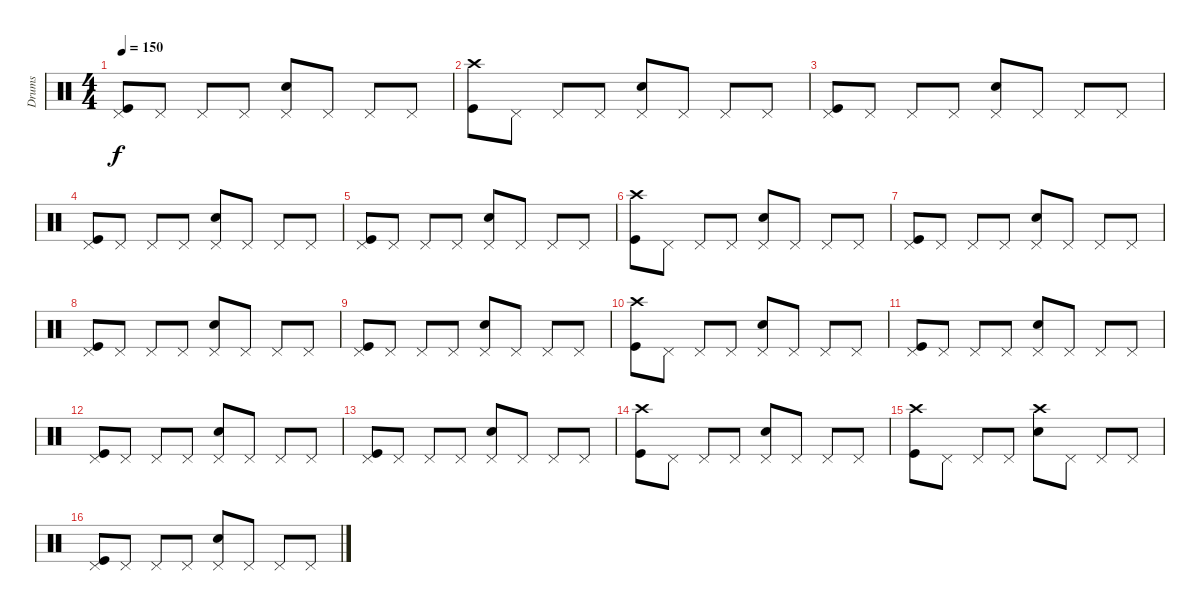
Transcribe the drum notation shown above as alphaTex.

\track ("Drums" "Drums") {instrument percussion}
\staff {score}
\articulation defaults
\ts (4 4)
\tempo 150
\clef neutral
\ks c
("Pedal Hi-Hat (hit)" "Kick (hit)").8{dy f} "Pedal Hi-Hat (hit)".8 "Pedal Hi-Hat (hit)".8 "Pedal Hi-Hat (hit)".8 ("Pedal Hi-Hat (hit)" "Snare (hit) 2").8 "Pedal Hi-Hat (hit)".8 "Pedal Hi-Hat (hit)".8 "Pedal Hi-Hat (hit)".8 |
("Crash high (hit)" "Kick (hit)").8 "Pedal Hi-Hat (hit)".8 "Pedal Hi-Hat (hit)".8 "Pedal Hi-Hat (hit)".8 ("Pedal Hi-Hat (hit)" "Snare (hit) 2").8 "Pedal Hi-Hat (hit)".8 "Pedal Hi-Hat (hit)".8 "Pedal Hi-Hat (hit)".8 |
("Pedal Hi-Hat (hit)" "Kick (hit)").8 "Pedal Hi-Hat (hit)".8 "Pedal Hi-Hat (hit)".8 "Pedal Hi-Hat (hit)".8 ("Pedal Hi-Hat (hit)" "Snare (hit) 2").8 "Pedal Hi-Hat (hit)".8 "Pedal Hi-Hat (hit)".8 "Pedal Hi-Hat (hit)".8 |
("Pedal Hi-Hat (hit)" "Kick (hit)").8 "Pedal Hi-Hat (hit)".8 "Pedal Hi-Hat (hit)".8 "Pedal Hi-Hat (hit)".8 ("Pedal Hi-Hat (hit)" "Snare (hit) 2").8 "Pedal Hi-Hat (hit)".8 "Pedal Hi-Hat (hit)".8 "Pedal Hi-Hat (hit)".8 |
("Pedal Hi-Hat (hit)" "Kick (hit)").8 "Pedal Hi-Hat (hit)".8 "Pedal Hi-Hat (hit)".8 "Pedal Hi-Hat (hit)".8 ("Pedal Hi-Hat (hit)" "Snare (hit) 2").8 "Pedal Hi-Hat (hit)".8 "Pedal Hi-Hat (hit)".8 "Pedal Hi-Hat (hit)".8 |
("Crash high (hit)" "Kick (hit)").8 "Pedal Hi-Hat (hit)".8 "Pedal Hi-Hat (hit)".8 "Pedal Hi-Hat (hit)".8 ("Pedal Hi-Hat (hit)" "Snare (hit) 2").8 "Pedal Hi-Hat (hit)".8 "Pedal Hi-Hat (hit)".8 "Pedal Hi-Hat (hit)".8 |
("Pedal Hi-Hat (hit)" "Kick (hit)").8 "Pedal Hi-Hat (hit)".8 "Pedal Hi-Hat (hit)".8 "Pedal Hi-Hat (hit)".8 ("Pedal Hi-Hat (hit)" "Snare (hit) 2").8 "Pedal Hi-Hat (hit)".8 "Pedal Hi-Hat (hit)".8 "Pedal Hi-Hat (hit)".8 |
("Pedal Hi-Hat (hit)" "Kick (hit)").8 "Pedal Hi-Hat (hit)".8 "Pedal Hi-Hat (hit)".8 "Pedal Hi-Hat (hit)".8 ("Pedal Hi-Hat (hit)" "Snare (hit) 2").8 "Pedal Hi-Hat (hit)".8 "Pedal Hi-Hat (hit)".8 "Pedal Hi-Hat (hit)".8 |
("Pedal Hi-Hat (hit)" "Kick (hit)").8 "Pedal Hi-Hat (hit)".8 "Pedal Hi-Hat (hit)".8 "Pedal Hi-Hat (hit)".8 ("Pedal Hi-Hat (hit)" "Snare (hit) 2").8 "Pedal Hi-Hat (hit)".8 "Pedal Hi-Hat (hit)".8 "Pedal Hi-Hat (hit)".8 |
("Crash high (hit)" "Kick (hit)").8 "Pedal Hi-Hat (hit)".8 "Pedal Hi-Hat (hit)".8 "Pedal Hi-Hat (hit)".8 ("Pedal Hi-Hat (hit)" "Snare (hit) 2").8 "Pedal Hi-Hat (hit)".8 "Pedal Hi-Hat (hit)".8 "Pedal Hi-Hat (hit)".8 |
("Pedal Hi-Hat (hit)" "Kick (hit)").8 "Pedal Hi-Hat (hit)".8 "Pedal Hi-Hat (hit)".8 "Pedal Hi-Hat (hit)".8 ("Pedal Hi-Hat (hit)" "Snare (hit) 2").8 "Pedal Hi-Hat (hit)".8 "Pedal Hi-Hat (hit)".8 "Pedal Hi-Hat (hit)".8 |
("Pedal Hi-Hat (hit)" "Kick (hit)").8 "Pedal Hi-Hat (hit)".8 "Pedal Hi-Hat (hit)".8 "Pedal Hi-Hat (hit)".8 ("Pedal Hi-Hat (hit)" "Snare (hit) 2").8 "Pedal Hi-Hat (hit)".8 "Pedal Hi-Hat (hit)".8 "Pedal Hi-Hat (hit)".8 |
("Pedal Hi-Hat (hit)" "Kick (hit)").8 "Pedal Hi-Hat (hit)".8 "Pedal Hi-Hat (hit)".8 "Pedal Hi-Hat (hit)".8 ("Pedal Hi-Hat (hit)" "Snare (hit) 2").8 "Pedal Hi-Hat (hit)".8 "Pedal Hi-Hat (hit)".8 "Pedal Hi-Hat (hit)".8 |
("Crash high (hit)" "Kick (hit)").8 "Pedal Hi-Hat (hit)".8 "Pedal Hi-Hat (hit)".8 "Pedal Hi-Hat (hit)".8 ("Pedal Hi-Hat (hit)" "Snare (hit) 2").8 "Pedal Hi-Hat (hit)".8 "Pedal Hi-Hat (hit)".8 "Pedal Hi-Hat (hit)".8 |
("Crash high (hit)" "Kick (hit)").8 "Pedal Hi-Hat (hit)".8 "Pedal Hi-Hat (hit)".8 "Pedal Hi-Hat (hit)".8 ("Crash high (hit)" "Snare (hit) 2").8 "Pedal Hi-Hat (hit)".8 "Pedal Hi-Hat (hit)".8 "Pedal Hi-Hat (hit)".8 |
("Pedal Hi-Hat (hit)" "Kick (hit)").8 "Pedal Hi-Hat (hit)".8 "Pedal Hi-Hat (hit)".8 "Pedal Hi-Hat (hit)".8 ("Pedal Hi-Hat (hit)" "Snare (hit) 2").8 "Pedal Hi-Hat (hit)".8 "Pedal Hi-Hat (hit)".8 "Pedal Hi-Hat (hit)".8
